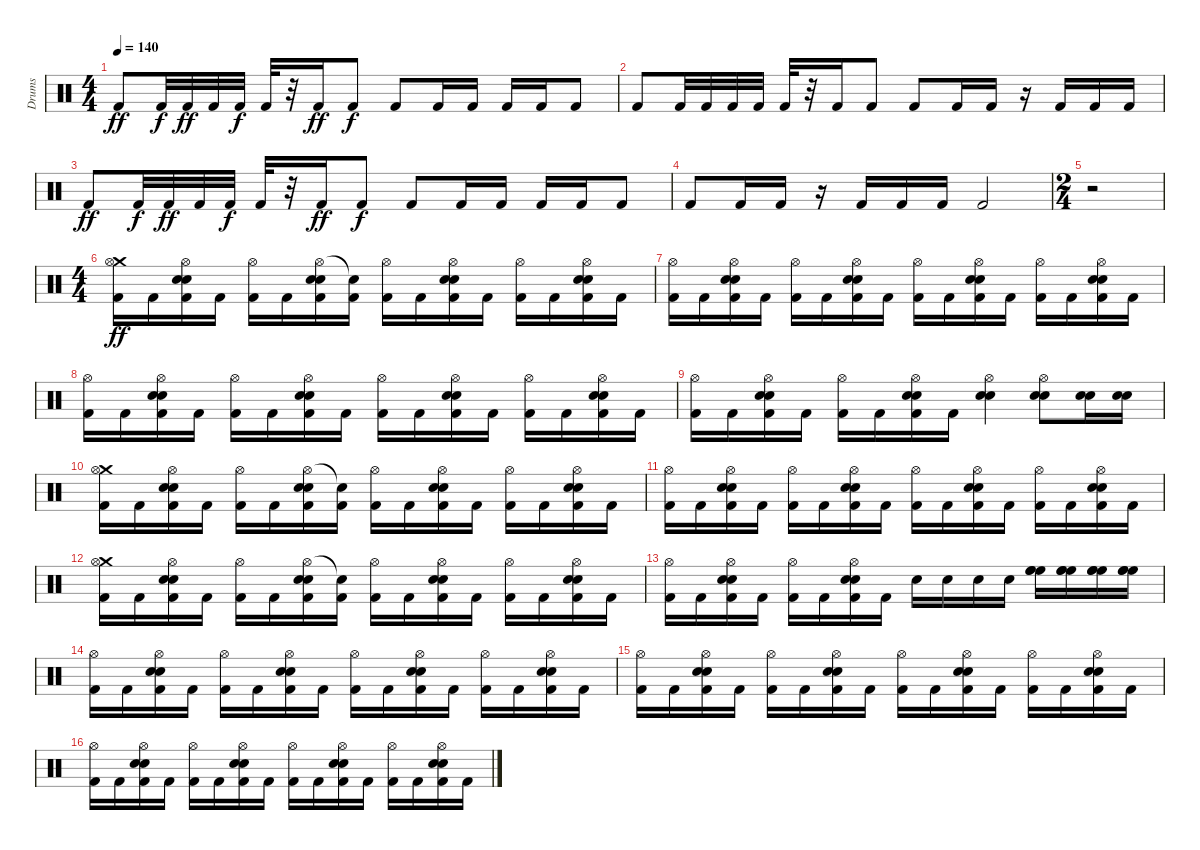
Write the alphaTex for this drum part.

\track ("Drums" "Drums") {instrument percussion}
\staff {score}
\articulation defaults
\ts (4 4)
\tempo 140
\clef neutral
\ks c "Kick (hit) 2".8{dy ff} "Kick (hit) 2".32{dy f} "Kick (hit) 2".32{dy ff} "Kick (hit) 2".32 "Kick (hit) 2".32{dy f} "Kick (hit) 2".32
r.32 "Kick (hit) 2".16{dy ff} "Kick (hit) 2".8{dy f} "Kick (hit) 2".8 "Kick (hit) 2".16 "Kick (hit) 2".16 "Kick (hit) 2".16 "Kick (hit) 2".16 "Kick (hit) 2".8 |
"Kick (hit) 2".8 "Kick (hit) 2".32 "Kick (hit) 2".32 "Kick (hit) 2".32 "Kick (hit) 2".32 "Kick (hit) 2".32 r.32 "Kick (hit) 2".16 "Kick (hit) 2".8 "Kick (hit) 2".8 "Kick (hit) 2".16 "Kick (hit) 2".16 r.16 "Kick (hit) 2".16 "Kick (hit) 2".16 "Kick (hit) 2".16 |
"Kick (hit) 2".8{dy ff} "Kick (hit) 2".32{dy f} "Kick (hit) 2".32{dy ff} "Kick (hit) 2".32 "Kick (hit) 2".32{dy f} "Kick (hit) 2".32 r.32 "Kick (hit) 2".16{dy ff} "Kick (hit) 2".8{dy f} "Kick (hit) 2".8 "Kick (hit) 2".16 "Kick (hit) 2".16 "Kick (hit) 2".16 "Kick (hit) 2".16 "Kick (hit) 2".8 |
"Kick (hit) 2".8 "Kick (hit) 2".16 "Kick (hit) 2".16 r.16 "Kick (hit) 2".16 "Kick (hit) 2".16 "Kick (hit) 2".16 "Kick (hit) 2".2 |
\ts (2 4)
r.2 |
\ts (4 4)
("Crash medium (hit)" "Hi-Hat (open)" "Kick (hit) 2").16{dy ff} "Kick (hit) 2".16 ("Hi-Hat (open)" "Electric Snare (hit)" "Electric Snare (hit)" "Kick (hit) 2").16 "Kick (hit) 2".16 ("Hi-Hat (open)" "Kick (hit) 2").16 "Kick (hit) 2".16 ("Hi-Hat (open)" "Electric Snare (hit)" "Electric Snare (hit)" "Kick (hit) 2").16 ("Snare (hit)"{t} "Kick (hit) 2").16 ("Hi-Hat (open)" "Kick (hit) 2").16 "Kick (hit) 2".16 ("Hi-Hat (open)" "Electric Snare (hit)" "Electric Snare (hit)" "Kick (hit) 2").16 "Kick (hit) 2".16 ("Hi-Hat (open)" "Kick (hit) 2").16 "Kick (hit) 2".16 ("Hi-Hat (open)" "Electric Snare (hit)" "Electric Snare (hit)" "Kick (hit) 2").16 "Kick (hit) 2".16 |
("Hi-Hat (open)" "Kick (hit) 2").16 "Kick (hit) 2".16 ("Hi-Hat (open)" "Electric Snare (hit)" "Electric Snare (hit)" "Kick (hit) 2").16 "Kick (hit) 2".16 ("Hi-Hat (open)" "Kick (hit) 2").16 "Kick (hit) 2".16 ("Hi-Hat (open)" "Electric Snare (hit)" "Electric Snare (hit)" "Kick (hit) 2").16 "Kick (hit) 2".16 ("Hi-Hat (open)" "Kick (hit) 2").16 "Kick (hit) 2".16 ("Hi-Hat (open)" "Electric Snare (hit)" "Electric Snare (hit)" "Kick (hit) 2").16 "Kick (hit) 2".16 ("Hi-Hat (open)" "Kick (hit) 2").16 "Kick (hit) 2".16 ("Hi-Hat (open)" "Electric Snare (hit)" "Electric Snare (hit)" "Kick (hit) 2").16 "Kick (hit) 2".16 |
("Hi-Hat (open)" "Kick (hit) 2").16 "Kick (hit) 2".16 ("Hi-Hat (open)" "Electric Snare (hit)" "Electric Snare (hit)" "Kick (hit) 2").16 "Kick (hit) 2".16 ("Hi-Hat (open)" "Kick (hit) 2").16 "Kick (hit) 2".16 ("Hi-Hat (open)" "Electric Snare (hit)" "Electric Snare (hit)" "Kick (hit) 2").16 "Kick (hit) 2".16 ("Hi-Hat (open)" "Kick (hit) 2").16 "Kick (hit) 2".16 ("Hi-Hat (open)" "Electric Snare (hit)" "Electric Snare (hit)" "Kick (hit) 2").16 "Kick (hit) 2".16 ("Hi-Hat (open)" "Kick (hit) 2").16 "Kick (hit) 2".16 ("Hi-Hat (open)" "Electric Snare (hit)" "Electric Snare (hit)" "Kick (hit) 2").16 "Kick (hit) 2".16 |
("Hi-Hat (open)" "Kick (hit) 2").16 "Kick (hit) 2".16 ("Hi-Hat (open)" "Electric Snare (hit)" "Electric Snare (hit)" "Kick (hit) 2").16 "Kick (hit) 2".16 ("Hi-Hat (open)" "Kick (hit) 2").16 "Kick (hit) 2".16 ("Hi-Hat (open)" "Electric Snare (hit)" "Electric Snare (hit)" "Kick (hit) 2").16 "Kick (hit) 2".16 ("Hi-Hat (open)" "Electric Snare (hit)" "Electric Snare (hit)").4 ("Hi-Hat (open)" "Electric Snare (hit)" "Electric Snare (hit)").8 ("Electric Snare (hit)" "Electric Snare (hit)").16 ("Electric Snare (hit)" "Electric Snare (hit)").16 |
("Crash medium (hit)" "Hi-Hat (open)" "Kick (hit) 2").16 "Kick (hit) 2".16 ("Hi-Hat (open)" "Electric Snare (hit)" "Electric Snare (hit)" "Kick (hit) 2").16 "Kick (hit) 2".16 ("Hi-Hat (open)" "Kick (hit) 2").16 "Kick (hit) 2".16 ("Hi-Hat (open)" "Electric Snare (hit)" "Electric Snare (hit)" "Kick (hit) 2").16 ("Snare (hit)"{t} "Kick (hit) 2").16 ("Hi-Hat (open)" "Kick (hit) 2").16 "Kick (hit) 2".16 ("Hi-Hat (open)" "Electric Snare (hit)" "Electric Snare (hit)" "Kick (hit) 2").16 "Kick (hit) 2".16 ("Hi-Hat (open)" "Kick (hit) 2").16 "Kick (hit) 2".16 ("Hi-Hat (open)" "Electric Snare (hit)" "Electric Snare (hit)" "Kick (hit) 2").16 "Kick (hit) 2".16 |
("Hi-Hat (open)" "Kick (hit) 2").16 "Kick (hit) 2".16 ("Hi-Hat (open)" "Electric Snare (hit)" "Electric Snare (hit)" "Kick (hit) 2").16 "Kick (hit) 2".16 ("Hi-Hat (open)" "Kick (hit) 2").16 "Kick (hit) 2".16 ("Hi-Hat (open)" "Electric Snare (hit)" "Electric Snare (hit)" "Kick (hit) 2").16 "Kick (hit) 2".16 ("Hi-Hat (open)" "Kick (hit) 2").16 "Kick (hit) 2".16 ("Hi-Hat (open)" "Electric Snare (hit)" "Electric Snare (hit)" "Kick (hit) 2").16 "Kick (hit) 2".16 ("Hi-Hat (open)" "Kick (hit) 2").16 "Kick (hit) 2".16 ("Hi-Hat (open)" "Electric Snare (hit)" "Electric Snare (hit)" "Kick (hit) 2").16 "Kick (hit) 2".16 |
("Crash medium (hit)" "Hi-Hat (open)" "Kick (hit) 2").16 "Kick (hit) 2".16 ("Hi-Hat (open)" "Electric Snare (hit)" "Electric Snare (hit)" "Kick (hit) 2").16 "Kick (hit) 2".16 ("Hi-Hat (open)" "Kick (hit) 2").16 "Kick (hit) 2".16 ("Hi-Hat (open)" "Electric Snare (hit)" "Electric Snare (hit)" "Kick (hit) 2").16 ("Snare (hit)"{t} "Kick (hit) 2").16 ("Hi-Hat (open)" "Kick (hit) 2").16 "Kick (hit) 2".16 ("Hi-Hat (open)" "Electric Snare (hit)" "Electric Snare (hit)" "Kick (hit) 2").16 "Kick (hit) 2".16 ("Hi-Hat (open)" "Kick (hit) 2").16 "Kick (hit) 2".16 ("Hi-Hat (open)" "Electric Snare (hit)" "Electric Snare (hit)" "Kick (hit) 2").16 "Kick (hit) 2".16 |
("Hi-Hat (open)" "Kick (hit) 2").16 "Kick (hit) 2".16 ("Hi-Hat (open)" "Electric Snare (hit)" "Electric Snare (hit)" "Kick (hit) 2").16 "Kick (hit) 2".16 ("Hi-Hat (open)" "Kick (hit) 2").16 "Kick (hit) 2".16 ("Hi-Hat (open)" "Electric Snare (hit)" "Electric Snare (hit)" "Kick (hit) 2").16 "Kick (hit) 2".16 "Electric Snare (hit)".16 "Electric Snare (hit)".16 "Electric Snare (hit)".16 "Electric Snare (hit)".16 ("High Floor Tom (hit)" "High Floor Tom (hit)" "High Floor Tom (hit)").16 ("High Floor Tom (hit)" "High Floor Tom (hit)" "High Floor Tom (hit)").16 ("High Floor Tom (hit)" "High Floor Tom (hit)" "High Floor Tom (hit)").16 ("High Floor Tom (hit)" "High Floor Tom (hit)" "High Floor Tom (hit)").16 |
("Hi-Hat (open)" "Kick (hit) 2").16 "Kick (hit) 2".16 ("Hi-Hat (open)" "Electric Snare (hit)" "Electric Snare (hit)" "Kick (hit) 2").16 "Kick (hit) 2".16 ("Hi-Hat (open)" "Kick (hit) 2").16 "Kick (hit) 2".16 ("Hi-Hat (open)" "Electric Snare (hit)" "Electric Snare (hit)" "Kick (hit) 2").16 "Kick (hit) 2".16 ("Hi-Hat (open)" "Kick (hit) 2").16 "Kick (hit) 2".16 ("Hi-Hat (open)" "Electric Snare (hit)" "Electric Snare (hit)" "Kick (hit) 2").16 "Kick (hit) 2".16 ("Hi-Hat (open)" "Kick (hit) 2").16 "Kick (hit) 2".16 ("Hi-Hat (open)" "Electric Snare (hit)" "Electric Snare (hit)" "Kick (hit) 2").16 "Kick (hit) 2".16 |
("Hi-Hat (open)" "Kick (hit) 2").16 "Kick (hit) 2".16 ("Hi-Hat (open)" "Electric Snare (hit)" "Electric Snare (hit)" "Kick (hit) 2").16 "Kick (hit) 2".16 ("Hi-Hat (open)" "Kick (hit) 2").16 "Kick (hit) 2".16 ("Hi-Hat (open)" "Electric Snare (hit)" "Electric Snare (hit)" "Kick (hit) 2").16 "Kick (hit) 2".16 ("Hi-Hat (open)" "Kick (hit) 2").16 "Kick (hit) 2".16 ("Hi-Hat (open)" "Electric Snare (hit)" "Electric Snare (hit)" "Kick (hit) 2").16 "Kick (hit) 2".16 ("Hi-Hat (open)" "Kick (hit) 2").16 "Kick (hit) 2".16 ("Hi-Hat (open)" "Electric Snare (hit)" "Electric Snare (hit)" "Kick (hit) 2").16 "Kick (hit) 2".16 |
("Hi-Hat (open)" "Kick (hit) 2").16 "Kick (hit) 2".16 ("Hi-Hat (open)" "Electric Snare (hit)" "Electric Snare (hit)" "Kick (hit) 2").16 "Kick (hit) 2".16 ("Hi-Hat (open)" "Kick (hit) 2").16 "Kick (hit) 2".16 ("Hi-Hat (open)" "Electric Snare (hit)" "Electric Snare (hit)" "Kick (hit) 2").16 "Kick (hit) 2".16 ("Hi-Hat (open)" "Kick (hit) 2").16 "Kick (hit) 2".16 ("Hi-Hat (open)" "Electric Snare (hit)" "Electric Snare (hit)" "Kick (hit) 2").16 "Kick (hit) 2".16 ("Hi-Hat (open)" "Kick (hit) 2").16 "Kick (hit) 2".16 ("Hi-Hat (open)" "Electric Snare (hit)" "Electric Snare (hit)" "Kick (hit) 2").16 "Kick (hit) 2".16
